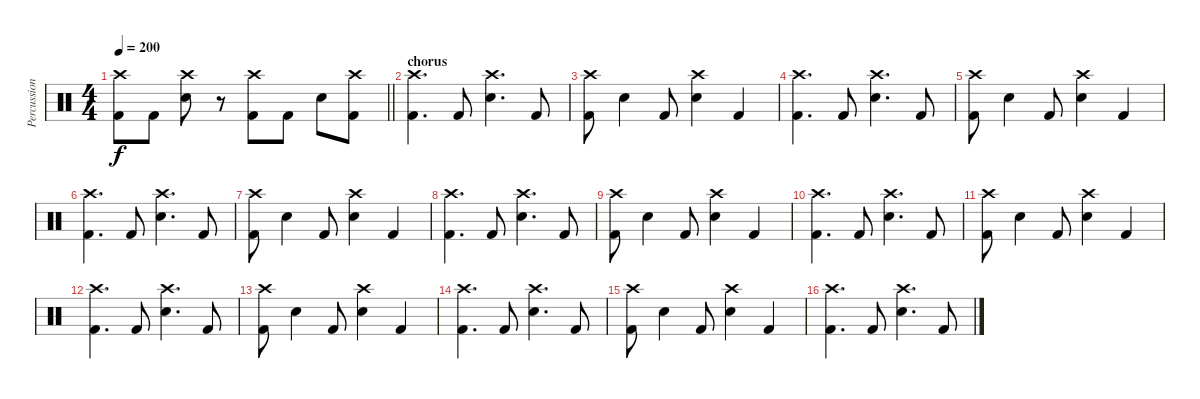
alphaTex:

\track ("Percussion" "Percussion") {instrument percussion}
\staff {score}
\articulation defaults
\ts (4 4)
\tempo 200
\clef neutral
\barLineRight lightlight
\ks c
("Crash high (hit)" "Kick (hit) 2").8{dy f} "Kick (hit) 2".8 ("Crash high (hit)" "Snare (hit) 2").8 r.8 ("Crash high (hit)" "Kick (hit) 2").8 "Kick (hit) 2".8 "Snare (hit) 2".8 ("Crash high (hit)" "Kick (hit) 2").8 |
\section ("" "chorus")
("Crash high (hit)" "Kick (hit) 2").4{d} "Kick (hit) 2".8 ("Crash high (hit)" "Snare (hit) 2").4{d} "Kick (hit) 2".8 |
("Crash high (hit)" "Kick (hit) 2").8 "Snare (hit) 2".4 "Kick (hit) 2".8 ("Crash high (hit)" "Snare (hit) 2").4 "Kick (hit) 2".4 |
("Crash high (hit)" "Kick (hit) 2").4{d} "Kick (hit) 2".8 ("Crash high (hit)" "Snare (hit) 2").4{d} "Kick (hit) 2".8 |
("Crash high (hit)" "Kick (hit) 2").8 "Snare (hit) 2".4 "Kick (hit) 2".8 ("Crash high (hit)" "Snare (hit) 2").4 "Kick (hit) 2".4 |
("Crash high (hit)" "Kick (hit) 2").4{d} "Kick (hit) 2".8 ("Crash high (hit)" "Snare (hit) 2").4{d} "Kick (hit) 2".8 |
("Crash high (hit)" "Kick (hit) 2").8 "Snare (hit) 2".4 "Kick (hit) 2".8 ("Crash high (hit)" "Snare (hit) 2").4 "Kick (hit) 2".4 |
("Crash high (hit)" "Kick (hit) 2").4{d} "Kick (hit) 2".8 ("Crash high (hit)" "Snare (hit) 2").4{d} "Kick (hit) 2".8 |
("Crash high (hit)" "Kick (hit) 2").8 "Snare (hit) 2".4 "Kick (hit) 2".8 ("Crash high (hit)" "Snare (hit) 2").4 "Kick (hit) 2".4 |
("Crash high (hit)" "Kick (hit) 2").4{d} "Kick (hit) 2".8 ("Crash high (hit)" "Snare (hit) 2").4{d} "Kick (hit) 2".8 |
("Crash high (hit)" "Kick (hit) 2").8 "Snare (hit) 2".4 "Kick (hit) 2".8 ("Crash high (hit)" "Snare (hit) 2").4 "Kick (hit) 2".4 |
("Crash high (hit)" "Kick (hit) 2").4{d} "Kick (hit) 2".8 ("Crash high (hit)" "Snare (hit) 2").4{d} "Kick (hit) 2".8 |
("Crash high (hit)" "Kick (hit) 2").8 "Snare (hit) 2".4 "Kick (hit) 2".8 ("Crash high (hit)" "Snare (hit) 2").4 "Kick (hit) 2".4 |
("Crash high (hit)" "Kick (hit) 2").4{d} "Kick (hit) 2".8 ("Crash high (hit)" "Snare (hit) 2").4{d} "Kick (hit) 2".8 |
("Crash high (hit)" "Kick (hit) 2").8 "Snare (hit) 2".4 "Kick (hit) 2".8 ("Crash high (hit)" "Snare (hit) 2").4 "Kick (hit) 2".4 |
("Crash high (hit)" "Kick (hit) 2").4{d} "Kick (hit) 2".8 ("Crash high (hit)" "Snare (hit) 2").4{d} "Kick (hit) 2".8
